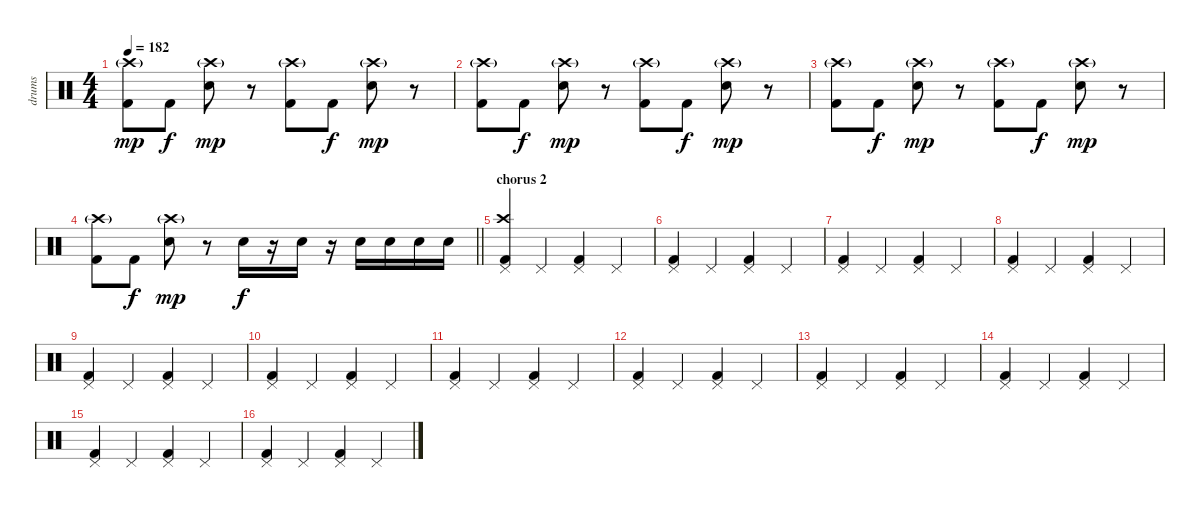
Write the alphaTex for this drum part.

\track ("drums" "drums") {instrument percussion}
\staff {score}
\articulation defaults
\ts (4 4)
\tempo 182
\clef neutral
\ks c
("Kick (hit) 2" "Crash high (hit)"{g}).8{dy mp} "Kick (hit) 2".8{dy f} ("Electric Snare (hit)" "Crash high (hit)"{g}).8{dy mp} r.8 ("Kick (hit) 2" "Crash high (hit)"{g}).8 "Kick (hit) 2".8{dy f} ("Electric Snare (hit)" "Crash high (hit)"{g}).8{dy mp} r.8 |
("Kick (hit) 2" "Crash high (hit)"{g}).8 "Kick (hit) 2".8{dy f} ("Electric Snare (hit)" "Crash high (hit)"{g}).8{dy mp} r.8 ("Kick (hit) 2" "Crash high (hit)"{g}).8 "Kick (hit) 2".8{dy f} ("Electric Snare (hit)" "Crash high (hit)"{g}).8{dy mp} r.8 |
("Kick (hit) 2" "Crash high (hit)"{g}).8 "Kick (hit) 2".8{dy f} ("Electric Snare (hit)" "Crash high (hit)"{g}).8{dy mp} r.8 ("Kick (hit) 2" "Crash high (hit)"{g}).8 "Kick (hit) 2".8{dy f} ("Electric Snare (hit)" "Crash high (hit)"{g}).8{dy mp} r.8 |
\barLineRight lightlight
("Kick (hit) 2" "Crash high (hit)"{g}).8 "Kick (hit) 2".8{dy f} ("Electric Snare (hit)" "Crash high (hit)"{g}).8{dy mp} r.8 "Electric Snare (hit)".16{dy f} r.16 "Electric Snare (hit)".16 r.16 "Electric Snare (hit)".16 "Electric Snare (hit)".16 "Electric Snare (hit)".16 "Electric Snare (hit)".16 |
\section ("" "chorus 2")
("Kick (hit) 2" "Pedal Hi-Hat (hit)" "Crash high (hit)").4 "Pedal Hi-Hat (hit)".4 ("Kick (hit) 2" "Pedal Hi-Hat (hit)").4 "Pedal Hi-Hat (hit)".4 |
("Kick (hit) 2" "Pedal Hi-Hat (hit)").4 "Pedal Hi-Hat (hit)".4 ("Kick (hit) 2" "Pedal Hi-Hat (hit)").4 "Pedal Hi-Hat (hit)".4 |
("Kick (hit) 2" "Pedal Hi-Hat (hit)").4 "Pedal Hi-Hat (hit)".4 ("Kick (hit) 2" "Pedal Hi-Hat (hit)").4 "Pedal Hi-Hat (hit)".4 |
("Kick (hit) 2" "Pedal Hi-Hat (hit)").4 "Pedal Hi-Hat (hit)".4 ("Kick (hit) 2" "Pedal Hi-Hat (hit)").4 "Pedal Hi-Hat (hit)".4 |
("Kick (hit) 2" "Pedal Hi-Hat (hit)").4 "Pedal Hi-Hat (hit)".4 ("Kick (hit) 2" "Pedal Hi-Hat (hit)").4 "Pedal Hi-Hat (hit)".4 |
("Kick (hit) 2" "Pedal Hi-Hat (hit)").4 "Pedal Hi-Hat (hit)".4 ("Kick (hit) 2" "Pedal Hi-Hat (hit)").4 "Pedal Hi-Hat (hit)".4 |
("Kick (hit) 2" "Pedal Hi-Hat (hit)").4 "Pedal Hi-Hat (hit)".4 ("Kick (hit) 2" "Pedal Hi-Hat (hit)").4 "Pedal Hi-Hat (hit)".4 |
("Kick (hit) 2" "Pedal Hi-Hat (hit)").4 "Pedal Hi-Hat (hit)".4 ("Kick (hit) 2" "Pedal Hi-Hat (hit)").4 "Pedal Hi-Hat (hit)".4 |
("Kick (hit) 2" "Pedal Hi-Hat (hit)").4 "Pedal Hi-Hat (hit)".4 ("Kick (hit) 2" "Pedal Hi-Hat (hit)").4 "Pedal Hi-Hat (hit)".4 |
("Kick (hit) 2" "Pedal Hi-Hat (hit)").4 "Pedal Hi-Hat (hit)".4 ("Kick (hit) 2" "Pedal Hi-Hat (hit)").4 "Pedal Hi-Hat (hit)".4 |
("Kick (hit) 2" "Pedal Hi-Hat (hit)").4 "Pedal Hi-Hat (hit)".4 ("Kick (hit) 2" "Pedal Hi-Hat (hit)").4 "Pedal Hi-Hat (hit)".4 |
("Kick (hit) 2" "Pedal Hi-Hat (hit)").4 "Pedal Hi-Hat (hit)".4 ("Kick (hit) 2" "Pedal Hi-Hat (hit)").4 "Pedal Hi-Hat (hit)".4
